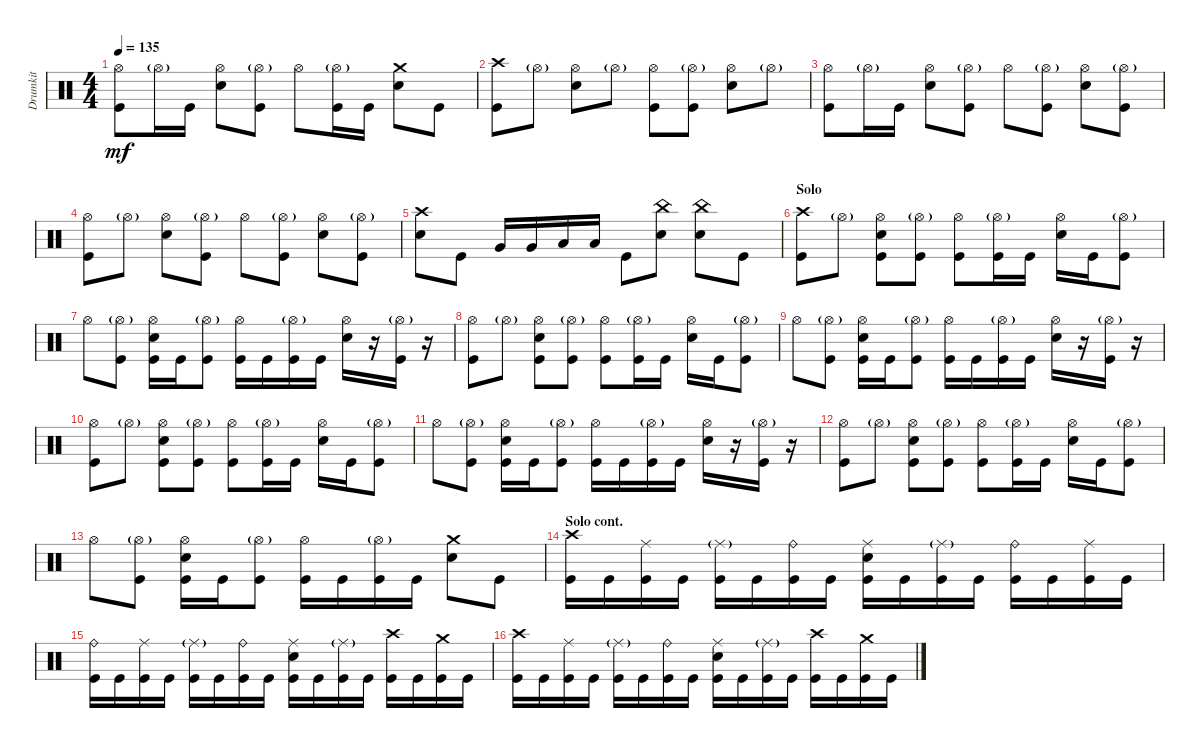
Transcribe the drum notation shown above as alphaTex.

\track ("Drumkit" "Drumkit") {instrument percussion}
\staff {score}
\articulation defaults
\ts (4 4)
\tempo 135
\clef neutral
\ks c
("Kick (hit)" "Hi-Hat (open)").8{dy mf} "Hi-Hat (open)"{g}.16 "Kick (hit)".16 ("Snare (hit) 2" "Hi-Hat (open)").8 ("Hi-Hat (open)"{g} "Kick (hit)").8 "Hi-Hat (open)".8 ("Kick (hit)" "Hi-Hat (open)"{g}).16 "Kick (hit)".16 ("Snare (hit) 2" "Crash medium (hit)").8 "Kick (hit)".8 |
("Kick (hit)" "Crash high (hit)").8 "Hi-Hat (open)"{g}.8 ("Snare (hit) 2" "Hi-Hat (open)").8 "Hi-Hat (open)"{g}.8 ("Hi-Hat (open)" "Kick (hit)").8 ("Kick (hit)" "Hi-Hat (open)"{g}).8 ("Snare (hit) 2" "Hi-Hat (open)").8 "Hi-Hat (open)"{g}.8 |
("Kick (hit)" "Hi-Hat (open)").8 "Hi-Hat (open)"{g}.16 "Kick (hit)".16 ("Snare (hit) 2" "Hi-Hat (open)").8 ("Hi-Hat (open)"{g} "Kick (hit)").8 "Hi-Hat (open)".8 ("Kick (hit)" "Hi-Hat (open)"{g}).8 ("Snare (hit) 2" "Hi-Hat (open)").8 ("Hi-Hat (open)"{g} "Kick (hit)").8 |
("Kick (hit)" "Hi-Hat (open)").8 "Hi-Hat (open)"{g}.8 ("Snare (hit) 2" "Hi-Hat (open)").8 ("Hi-Hat (open)"{g} "Kick (hit)").8 "Hi-Hat (open)".8 ("Kick (hit)" "Hi-Hat (open)"{g}).8 ("Snare (hit) 2" "Hi-Hat (open)").8 ("Hi-Hat (open)"{g} "Kick (hit)").8 |
("Snare (hit) 2" "Crash high (hit)").8 "Kick (hit)".8 "Very Low Tom (hit)".16 "Very Low Tom (hit)".16 "Low Floor Tom (hit)".16 "Low Floor Tom (hit)".16 "Kick (hit)".8 ("Snare (hit) 2" "China (hit)").8 ("Snare (hit) 2" "China (hit)").8 "Kick (hit)".8 |
\section ("" "Solo")
("Crash high (hit)" "Kick (hit)").8 "Hi-Hat (open)"{g}.8 ("Hi-Hat (open)" "Kick (hit)" "Snare (hit) 2").8 ("Hi-Hat (open)"{g} "Kick (hit)").8 ("Hi-Hat (open)" "Kick (hit)").8 ("Hi-Hat (open)"{g} "Kick (hit)").16 "Kick (hit)".16 ("Hi-Hat (open)" "Snare (hit) 2").16 "Kick (hit)".16 ("Hi-Hat (open)"{g} "Kick (hit)").8 |
"Hi-Hat (open)".8 ("Hi-Hat (open)"{g} "Kick (hit)").8 ("Hi-Hat (open)" "Kick (hit)" "Snare (hit) 2").16 "Kick (hit)".16 ("Hi-Hat (open)"{g} "Kick (hit)").8 ("Hi-Hat (open)" "Kick (hit)").16 "Kick (hit)".16 ("Hi-Hat (open)"{g} "Kick (hit)").16 "Kick (hit)".16 ("Hi-Hat (open)" "Snare (hit) 2").16 r.16 ("Hi-Hat (open)"{g} "Kick (hit)").16 r.16 |
("Kick (hit)" "Hi-Hat (open)").8 "Hi-Hat (open)"{g}.8 ("Hi-Hat (open)" "Kick (hit)" "Snare (hit) 2").8 ("Hi-Hat (open)"{g} "Kick (hit)").8 ("Hi-Hat (open)" "Kick (hit)").8 ("Hi-Hat (open)"{g} "Kick (hit)").16 "Kick (hit)".16 ("Hi-Hat (open)" "Snare (hit) 2").16 "Kick (hit)".16 ("Hi-Hat (open)"{g} "Kick (hit)").8 |
"Hi-Hat (open)".8 ("Hi-Hat (open)"{g} "Kick (hit)").8 ("Hi-Hat (open)" "Kick (hit)" "Snare (hit) 2").16 "Kick (hit)".16 ("Hi-Hat (open)"{g} "Kick (hit)").8 ("Hi-Hat (open)" "Kick (hit)").16 "Kick (hit)".16 ("Hi-Hat (open)"{g} "Kick (hit)").16 "Kick (hit)".16 ("Hi-Hat (open)" "Snare (hit) 2").16 r.16 ("Hi-Hat (open)"{g} "Kick (hit)").16 r.16 |
("Kick (hit)" "Hi-Hat (open)").8 "Hi-Hat (open)"{g}.8 ("Hi-Hat (open)" "Kick (hit)" "Snare (hit) 2").8 ("Hi-Hat (open)"{g} "Kick (hit)").8 ("Hi-Hat (open)" "Kick (hit)").8 ("Hi-Hat (open)"{g} "Kick (hit)").16 "Kick (hit)".16 ("Hi-Hat (open)" "Snare (hit) 2").16 "Kick (hit)".16 ("Hi-Hat (open)"{g} "Kick (hit)").8 |
"Hi-Hat (open)".8 ("Hi-Hat (open)"{g} "Kick (hit)").8 ("Hi-Hat (open)" "Kick (hit)" "Snare (hit) 2").16 "Kick (hit)".16 ("Hi-Hat (open)"{g} "Kick (hit)").8 ("Hi-Hat (open)" "Kick (hit)").16 "Kick (hit)".16 ("Hi-Hat (open)"{g} "Kick (hit)").16 "Kick (hit)".16 ("Hi-Hat (open)" "Snare (hit) 2").16 r.16 ("Hi-Hat (open)"{g} "Kick (hit)").16 r.16 |
("Kick (hit)" "Hi-Hat (open)").8 "Hi-Hat (open)"{g}.8 ("Hi-Hat (open)" "Kick (hit)" "Snare (hit) 2").8 ("Hi-Hat (open)"{g} "Kick (hit)").8 ("Hi-Hat (open)" "Kick (hit)").8 ("Hi-Hat (open)"{g} "Kick (hit)").16 "Kick (hit)".16 ("Hi-Hat (open)" "Snare (hit) 2").16 "Kick (hit)".16 ("Hi-Hat (open)"{g} "Kick (hit)").8 |
"Hi-Hat (open)".8 ("Hi-Hat (open)"{g} "Kick (hit)").8 ("Hi-Hat (open)" "Kick (hit)" "Snare (hit) 2").16 "Kick (hit)".16 ("Hi-Hat (open)"{g} "Kick (hit)").8 ("Hi-Hat (open)" "Kick (hit)").16 "Kick (hit)".16 ("Hi-Hat (open)"{g} "Kick (hit)").16 "Kick (hit)".16 ("Snare (hit) 2" "Crash medium (hit)").8 "Kick (hit)".8 |
\section ("" "Solo cont.")
("Kick (hit)" "Crash high (hit)").16 "Kick (hit)".16 ("Kick (hit)" "Ride (middle)").16 "Kick (hit)".16 ("Kick (hit)" "Ride (middle)"{g}).16 "Kick (hit)".16 ("Kick (hit)" "Ride (bell)").16 "Kick (hit)".16 ("Kick (hit)" "Snare (hit) 2" "Ride (middle)").16 "Kick (hit)".16 ("Kick (hit)" "Ride (middle)"{g}).16 "Kick (hit)".16 ("Kick (hit)" "Ride (bell)").16 "Kick (hit)".16 ("Kick (hit)" "Ride (middle)").16 "Kick (hit)".16 |
("Kick (hit)" "Ride (bell)").16 "Kick (hit)".16 ("Kick (hit)" "Ride (middle)").16 "Kick (hit)".16 ("Kick (hit)" "Ride (middle)"{g}).16 "Kick (hit)".16 ("Kick (hit)" "Ride (bell)").16 "Kick (hit)".16 ("Kick (hit)" "Snare (hit) 2" "Ride (middle)").16 "Kick (hit)".16 ("Kick (hit)" "Ride (middle)"{g}).16 "Kick (hit)".16 ("Kick (hit)" "Crash high (hit)").16 "Kick (hit)".16 ("Kick (hit)" "Crash medium (hit)").16 "Kick (hit)".16 |
("Kick (hit)" "Crash high (hit)").16 "Kick (hit)".16 ("Kick (hit)" "Ride (middle)").16 "Kick (hit)".16 ("Kick (hit)" "Ride (middle)"{g}).16 "Kick (hit)".16 ("Kick (hit)" "Ride (bell)").16 "Kick (hit)".16 ("Kick (hit)" "Snare (hit) 2" "Ride (middle)").16 "Kick (hit)".16 ("Kick (hit)" "Ride (middle)"{g}).16 "Kick (hit)".16 ("Kick (hit)" "Crash high (hit)").16 "Kick (hit)".16 ("Kick (hit)" "Crash medium (hit)").16 "Kick (hit)".16
